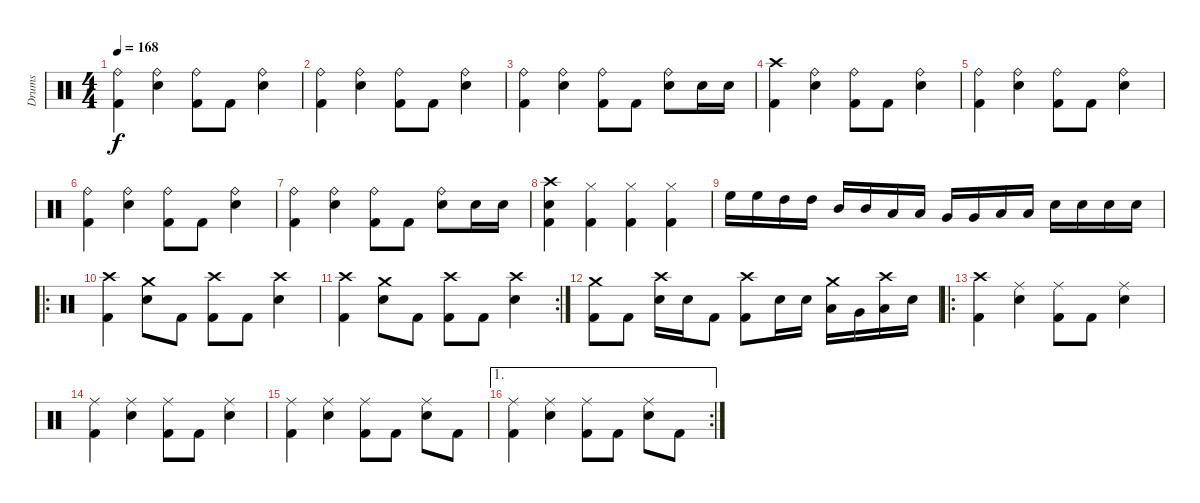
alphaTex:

\track ("Drums" "Drums") {instrument percussion}
\staff {score}
\articulation defaults
\ts (4 4)
\tempo 168
\clef neutral
\ks c
("Ride (bell)" "Kick (hit) 2").4{dy f} ("Ride (bell)" "Electric Snare (hit)").4 ("Ride (bell)" "Kick (hit) 2").8 "Kick (hit) 2".8 ("Ride (bell)" "Electric Snare (hit)").4 |
("Ride (bell)" "Kick (hit) 2").4 ("Ride (bell)" "Electric Snare (hit)").4 ("Ride (bell)" "Kick (hit) 2").8 "Kick (hit) 2".8 ("Ride (bell)" "Electric Snare (hit)").4 |
("Ride (bell)" "Kick (hit) 2").4 ("Ride (bell)" "Electric Snare (hit)").4 ("Ride (bell)" "Kick (hit) 2").8 "Kick (hit) 2".8 ("Ride (bell)" "Electric Snare (hit)").8 "Electric Snare (hit)".16 "Electric Snare (hit)".16 |
("Crash high (hit)" "Kick (hit) 2").4 ("Ride (bell)" "Electric Snare (hit)").4 ("Ride (bell)" "Kick (hit) 2").8 "Kick (hit) 2".8 ("Ride (bell)" "Electric Snare (hit)").4 |
("Ride (bell)" "Kick (hit) 2").4 ("Ride (bell)" "Electric Snare (hit)").4 ("Ride (bell)" "Kick (hit) 2").8 "Kick (hit) 2".8 ("Ride (bell)" "Electric Snare (hit)").4 |
("Ride (bell)" "Kick (hit) 2").4 ("Ride (bell)" "Electric Snare (hit)").4 ("Ride (bell)" "Kick (hit) 2").8 "Kick (hit) 2".8 ("Ride (bell)" "Electric Snare (hit)").4 |
("Ride (bell)" "Kick (hit) 2").4 ("Ride (bell)" "Electric Snare (hit)").4 ("Ride (bell)" "Kick (hit) 2").8 "Kick (hit) 2".8 ("Ride (bell)" "Electric Snare (hit)").8 "Electric Snare (hit)".16 "Electric Snare (hit)".16 |
("Crash high (hit)" "Electric Snare (hit)" "Kick (hit) 2").4 ("Hi-Hat (closed)" "Kick (hit) 2").4 ("Hi-Hat (closed)" "Kick (hit) 2").4 ("Hi-Hat (closed)" "Kick (hit) 2").4 |
"High Floor Tom (hit)".16 "High Floor Tom (hit)".16 "High Tom (hit)".16 "High Tom (hit)".16 "Mid Tom (hit)".16 "Mid Tom (hit)".16 "Low Tom (hit)".16 "Low Tom (hit)".16 "Very Low Tom (hit)".16 "Very Low Tom (hit)".16 "Low Floor Tom (hit)".16 "Low Floor Tom (hit)".16 "Electric Snare (hit)".16 "Electric Snare (hit)".16 "Electric Snare (hit)".16 "Electric Snare (hit)".16 |
\ro
("Crash high (hit)" "Kick (hit) 2").4 ("Crash medium (hit)" "Electric Snare (hit)").8 "Kick (hit) 2".8 ("Crash high (hit)" "Kick (hit) 2").8 "Kick (hit) 2".8 ("Crash high (hit)" "Electric Snare (hit)").4 |
\rc 2
("Crash high (hit)" "Kick (hit) 2").4 ("Crash medium (hit)" "Electric Snare (hit)").8 "Kick (hit) 2".8 ("Crash high (hit)" "Kick (hit) 2").8 "Kick (hit) 2".8 ("Crash high (hit)" "Electric Snare (hit)").4 |
("Crash medium (hit)" "Kick (hit) 2").8 "Kick (hit) 2".8 ("Crash high (hit)" "Electric Snare (hit)").16 "Electric Snare (hit)".16 "Kick (hit) 2".8 ("Crash high (hit)" "Kick (hit) 2").8 "Electric Snare (hit)".16 "Electric Snare (hit)".16 ("Crash medium (hit)" "Low Tom (hit)").16 "Very Low Tom (hit)".16 ("Crash high (hit)" "Low Floor Tom (hit)").16 "Electric Snare (hit)".16 |
\ro
("Crash high (hit)" "Kick (hit) 2").4 ("Ride (middle)" "Electric Snare (hit)").4 ("Ride (middle)" "Kick (hit) 2").8 "Kick (hit) 2".8 ("Ride (middle)" "Electric Snare (hit)").4 |
("Ride (middle)" "Kick (hit) 2").4 ("Ride (middle)" "Electric Snare (hit)").4 ("Ride (middle)" "Kick (hit) 2").8 "Kick (hit) 2".8 ("Ride (middle)" "Electric Snare (hit)").4 |
("Ride (middle)" "Kick (hit) 2").4 ("Ride (middle)" "Electric Snare (hit)").4 ("Ride (middle)" "Kick (hit) 2").8 "Kick (hit) 2".8 ("Ride (middle)" "Electric Snare (hit)").8 "Kick (hit) 2".8 |
\ae 1
\rc 2
("Ride (middle)" "Kick (hit) 2").4 ("Ride (middle)" "Electric Snare (hit)").4 ("Ride (middle)" "Kick (hit) 2").8 "Kick (hit) 2".8 ("Ride (middle)" "Electric Snare (hit)").8 "Kick (hit) 2".8
